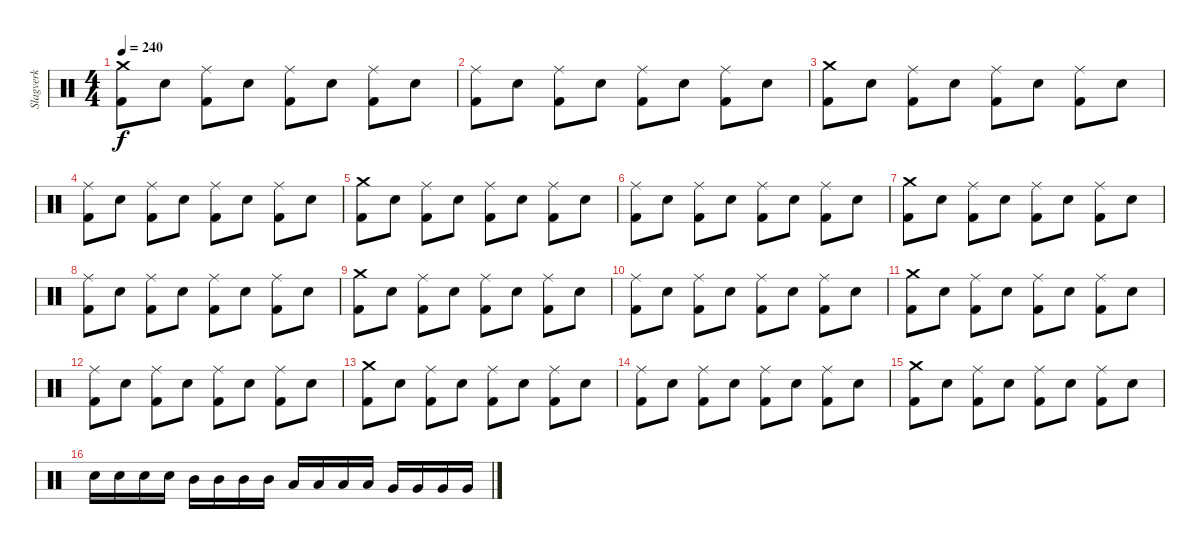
\track ("Slagverk" "Slagverk") {instrument percussion}
\staff {score}
\articulation defaults
\ts (4 4)
\tempo 240
\clef neutral
\ks c
("Crash medium (hit)" "Kick (hit) 2").8{dy f} "Electric Snare (hit)".8 ("Ride (middle)" "Kick (hit) 2").8 "Electric Snare (hit)".8 ("Ride (middle)" "Kick (hit) 2").8 "Electric Snare (hit)".8 ("Ride (middle)" "Kick (hit) 2").8 "Electric Snare (hit)".8 |
("Ride (middle)" "Kick (hit) 2").8 "Electric Snare (hit)".8 ("Ride (middle)" "Kick (hit) 2").8 "Electric Snare (hit)".8 ("Ride (middle)" "Kick (hit) 2").8 "Electric Snare (hit)".8 ("Ride (middle)" "Kick (hit) 2").8 "Electric Snare (hit)".8 |
("Crash medium (hit)" "Kick (hit) 2").8 "Electric Snare (hit)".8 ("Ride (middle)" "Kick (hit) 2").8 "Electric Snare (hit)".8 ("Ride (middle)" "Kick (hit) 2").8 "Electric Snare (hit)".8 ("Ride (middle)" "Kick (hit) 2").8 "Electric Snare (hit)".8 |
("Ride (middle)" "Kick (hit) 2").8 "Electric Snare (hit)".8 ("Ride (middle)" "Kick (hit) 2").8 "Electric Snare (hit)".8 ("Ride (middle)" "Kick (hit) 2").8 "Electric Snare (hit)".8 ("Ride (middle)" "Kick (hit) 2").8 "Electric Snare (hit)".8 |
("Crash medium (hit)" "Kick (hit) 2").8 "Electric Snare (hit)".8 ("Ride (middle)" "Kick (hit) 2").8 "Electric Snare (hit)".8 ("Ride (middle)" "Kick (hit) 2").8 "Electric Snare (hit)".8 ("Ride (middle)" "Kick (hit) 2").8 "Electric Snare (hit)".8 |
("Ride (middle)" "Kick (hit) 2").8 "Electric Snare (hit)".8 ("Ride (middle)" "Kick (hit) 2").8 "Electric Snare (hit)".8 ("Ride (middle)" "Kick (hit) 2").8 "Electric Snare (hit)".8 ("Ride (middle)" "Kick (hit) 2").8 "Electric Snare (hit)".8 |
("Crash medium (hit)" "Kick (hit) 2").8 "Electric Snare (hit)".8 ("Ride (middle)" "Kick (hit) 2").8 "Electric Snare (hit)".8 ("Ride (middle)" "Kick (hit) 2").8 "Electric Snare (hit)".8 ("Ride (middle)" "Kick (hit) 2").8 "Electric Snare (hit)".8 |
("Ride (middle)" "Kick (hit) 2").8 "Electric Snare (hit)".8 ("Ride (middle)" "Kick (hit) 2").8 "Electric Snare (hit)".8 ("Ride (middle)" "Kick (hit) 2").8 "Electric Snare (hit)".8 ("Ride (middle)" "Kick (hit) 2").8 "Electric Snare (hit)".8 |
("Crash medium (hit)" "Kick (hit) 2").8 "Electric Snare (hit)".8 ("Ride (middle)" "Kick (hit) 2").8 "Electric Snare (hit)".8 ("Ride (middle)" "Kick (hit) 2").8 "Electric Snare (hit)".8 ("Ride (middle)" "Kick (hit) 2").8 "Electric Snare (hit)".8 |
("Ride (middle)" "Kick (hit) 2").8 "Electric Snare (hit)".8 ("Ride (middle)" "Kick (hit) 2").8 "Electric Snare (hit)".8 ("Ride (middle)" "Kick (hit) 2").8 "Electric Snare (hit)".8 ("Ride (middle)" "Kick (hit) 2").8 "Electric Snare (hit)".8 |
("Crash medium (hit)" "Kick (hit) 2").8 "Electric Snare (hit)".8 ("Ride (middle)" "Kick (hit) 2").8 "Electric Snare (hit)".8 ("Ride (middle)" "Kick (hit) 2").8 "Electric Snare (hit)".8 ("Ride (middle)" "Kick (hit) 2").8 "Electric Snare (hit)".8 |
("Ride (middle)" "Kick (hit) 2").8 "Electric Snare (hit)".8 ("Ride (middle)" "Kick (hit) 2").8 "Electric Snare (hit)".8 ("Ride (middle)" "Kick (hit) 2").8 "Electric Snare (hit)".8 ("Ride (middle)" "Kick (hit) 2").8 "Electric Snare (hit)".8 |
("Crash medium (hit)" "Kick (hit) 2").8 "Electric Snare (hit)".8 ("Ride (middle)" "Kick (hit) 2").8 "Electric Snare (hit)".8 ("Ride (middle)" "Kick (hit) 2").8 "Electric Snare (hit)".8 ("Ride (middle)" "Kick (hit) 2").8 "Electric Snare (hit)".8 |
("Ride (middle)" "Kick (hit) 2").8 "Electric Snare (hit)".8 ("Ride (middle)" "Kick (hit) 2").8 "Electric Snare (hit)".8 ("Ride (middle)" "Kick (hit) 2").8 "Electric Snare (hit)".8 ("Ride (middle)" "Kick (hit) 2").8 "Electric Snare (hit)".8 |
("Crash medium (hit)" "Kick (hit) 2").8 "Electric Snare (hit)".8 ("Ride (middle)" "Kick (hit) 2").8 "Electric Snare (hit)".8 ("Ride (middle)" "Kick (hit) 2").8 "Electric Snare (hit)".8 ("Ride (middle)" "Kick (hit) 2").8 "Electric Snare (hit)".8 |
"Electric Snare (hit)".16 "Electric Snare (hit)".16 "Electric Snare (hit)".16 "Electric Snare (hit)".16 "Mid Tom (hit)".16 "Mid Tom (hit)".16 "Mid Tom (hit)".16 "Mid Tom (hit)".16 "Low Tom (hit)".16 "Low Tom (hit)".16 "Low Tom (hit)".16 "Low Tom (hit)".16 "Very Low Tom (hit)".16 "Very Low Tom (hit)".16 "Very Low Tom (hit)".16 "Very Low Tom (hit)".16
